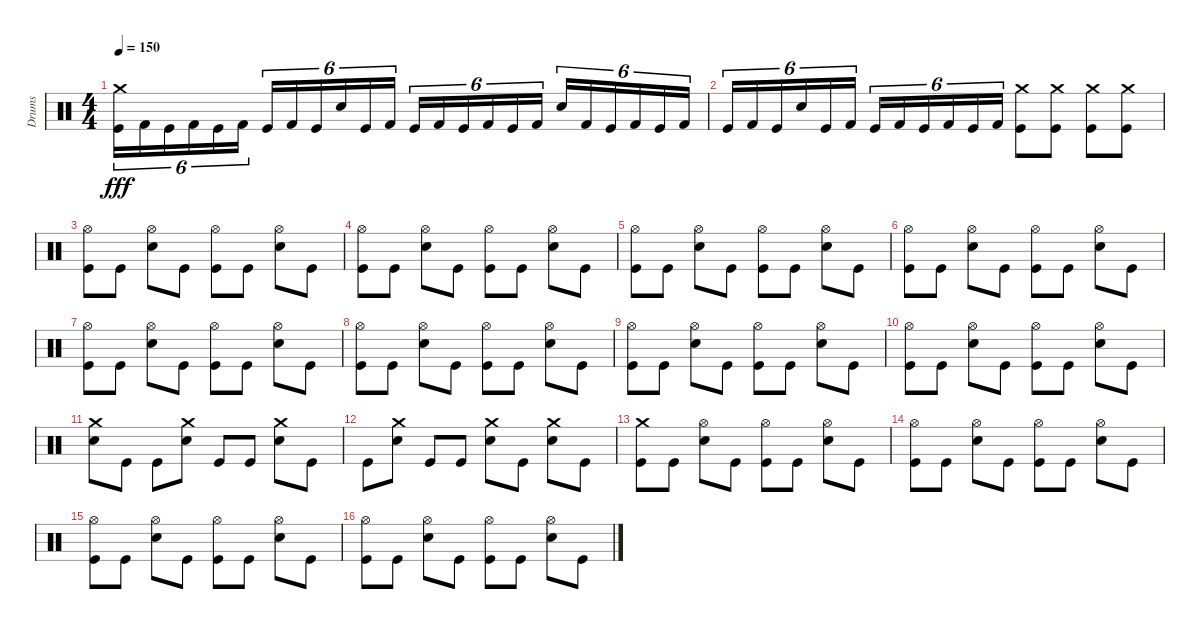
\track ("Drums" "Drums") {instrument percussion}
\staff {score}
\articulation defaults
\ts (4 4)
\tempo 150
\clef neutral
\ks c
("Kick (hit)" "Crash medium (hit)").16{tu (6 4) dy fff} "Kick (hit) 2".16{tu (6 4)} "Kick (hit)".16{tu (6 4)} "Kick (hit) 2".16{tu (6 4)} "Kick (hit)".16{tu (6 4)} "Kick (hit) 2".16{tu (6 4)} "Kick (hit)".16{tu (6 4)} "Kick (hit) 2".16{tu (6 4)} "Kick (hit)".16{tu (6 4)} "Snare (hit) 2".16{tu (6 4)} "Kick (hit)".16{tu (6 4)} "Kick (hit) 2".16{tu (6 4)} "Kick (hit)".16{tu (6 4)} "Kick (hit) 2".16{tu (6 4)} "Kick (hit)".16{tu (6 4)} "Kick (hit) 2".16{tu (6 4)} "Kick (hit)".16{tu (6 4)} "Kick (hit) 2".16{tu (6 4)} "Snare (hit) 2".16{tu (6 4)} "Kick (hit) 2".16{tu (6 4)} "Kick (hit)".16{tu (6 4)} "Kick (hit) 2".16{tu (6 4)} "Kick (hit)".16{tu (6 4)} "Kick (hit) 2".16{tu (6 4)} |
"Kick (hit)".16{tu (6 4)} "Kick (hit) 2".16{tu (6 4)} "Kick (hit)".16{tu (6 4)} "Snare (hit) 2".16{tu (6 4)} "Kick (hit)".16{tu (6 4)} "Kick (hit) 2".16{tu (6 4)} "Kick (hit)".16{tu (6 4)} "Kick (hit) 2".16{tu (6 4)} "Kick (hit)".16{tu (6 4)} "Kick (hit) 2".16{tu (6 4)} "Kick (hit)".16{tu (6 4)} "Kick (hit) 2".16{tu (6 4)} ("Kick (hit)" "Crash medium (hit)").8 ("Kick (hit)" "Crash medium (hit)").8 ("Kick (hit)" "Crash medium (hit)").8 ("Kick (hit)" "Crash medium (hit)").8 |
("Hi-Hat (open)" "Kick (hit)").8 "Kick (hit)".8 ("Hi-Hat (open)" "Snare (hit) 2").8 "Kick (hit)".8 ("Hi-Hat (open)" "Kick (hit)").8 "Kick (hit)".8 ("Hi-Hat (open)" "Snare (hit) 2").8 "Kick (hit)".8 |
("Hi-Hat (open)" "Kick (hit)").8 "Kick (hit)".8 ("Hi-Hat (open)" "Snare (hit) 2").8 "Kick (hit)".8 ("Hi-Hat (open)" "Kick (hit)").8 "Kick (hit)".8 ("Hi-Hat (open)" "Snare (hit) 2").8 "Kick (hit)".8 |
("Hi-Hat (open)" "Kick (hit)").8 "Kick (hit)".8 ("Hi-Hat (open)" "Snare (hit) 2").8 "Kick (hit)".8 ("Hi-Hat (open)" "Kick (hit)").8 "Kick (hit)".8 ("Hi-Hat (open)" "Snare (hit) 2").8 "Kick (hit)".8 |
("Hi-Hat (open)" "Kick (hit)").8 "Kick (hit)".8 ("Hi-Hat (open)" "Snare (hit) 2").8 "Kick (hit)".8 ("Hi-Hat (open)" "Kick (hit)").8 "Kick (hit)".8 ("Hi-Hat (open)" "Snare (hit) 2").8 "Kick (hit)".8 |
("Hi-Hat (open)" "Kick (hit)").8 "Kick (hit)".8 ("Hi-Hat (open)" "Snare (hit) 2").8 "Kick (hit)".8 ("Hi-Hat (open)" "Kick (hit)").8 "Kick (hit)".8 ("Hi-Hat (open)" "Snare (hit) 2").8 "Kick (hit)".8 |
("Hi-Hat (open)" "Kick (hit)").8 "Kick (hit)".8 ("Hi-Hat (open)" "Snare (hit) 2").8 "Kick (hit)".8 ("Hi-Hat (open)" "Kick (hit)").8 "Kick (hit)".8 ("Hi-Hat (open)" "Snare (hit) 2").8 "Kick (hit)".8 |
("Hi-Hat (open)" "Kick (hit)").8 "Kick (hit)".8 ("Hi-Hat (open)" "Snare (hit) 2").8 "Kick (hit)".8 ("Hi-Hat (open)" "Kick (hit)").8 "Kick (hit)".8 ("Hi-Hat (open)" "Snare (hit) 2").8 "Kick (hit)".8 |
("Hi-Hat (open)" "Kick (hit)").8 "Kick (hit)".8 ("Hi-Hat (open)" "Snare (hit) 2").8 "Kick (hit)".8 ("Hi-Hat (open)" "Kick (hit)").8 "Kick (hit)".8 ("Hi-Hat (open)" "Snare (hit) 2").8 "Kick (hit)".8 |
("Crash medium (hit)" "Snare (hit) 2").8 "Kick (hit)".8 "Kick (hit)".8 ("Crash medium (hit)" "Snare (hit) 2").8 "Kick (hit)".8 "Kick (hit)".8 ("Crash medium (hit)" "Snare (hit) 2").8 "Kick (hit)".8 |
"Kick (hit)".8 ("Crash medium (hit)" "Snare (hit) 2").8 "Kick (hit)".8 "Kick (hit)".8 ("Crash medium (hit)" "Snare (hit) 2").8 "Kick (hit)".8 ("Crash medium (hit)" "Snare (hit) 2").8 "Kick (hit)".8 |
("Crash medium (hit)" "Kick (hit)").8 "Kick (hit)".8 ("Hi-Hat (open)" "Snare (hit) 2").8 "Kick (hit)".8 ("Hi-Hat (open)" "Kick (hit)").8 "Kick (hit)".8 ("Hi-Hat (open)" "Snare (hit) 2").8 "Kick (hit)".8 |
("Hi-Hat (open)" "Kick (hit)").8 "Kick (hit)".8 ("Hi-Hat (open)" "Snare (hit) 2").8 "Kick (hit)".8 ("Hi-Hat (open)" "Kick (hit)").8 "Kick (hit)".8 ("Hi-Hat (open)" "Snare (hit) 2").8 "Kick (hit)".8 |
("Hi-Hat (open)" "Kick (hit)").8 "Kick (hit)".8 ("Hi-Hat (open)" "Snare (hit) 2").8 "Kick (hit)".8 ("Hi-Hat (open)" "Kick (hit)").8 "Kick (hit)".8 ("Hi-Hat (open)" "Snare (hit) 2").8 "Kick (hit)".8 |
("Hi-Hat (open)" "Kick (hit)").8 "Kick (hit)".8 ("Hi-Hat (open)" "Snare (hit) 2").8 "Kick (hit)".8 ("Hi-Hat (open)" "Kick (hit)").8 "Kick (hit)".8 ("Hi-Hat (open)" "Snare (hit) 2").8 "Kick (hit)".8
